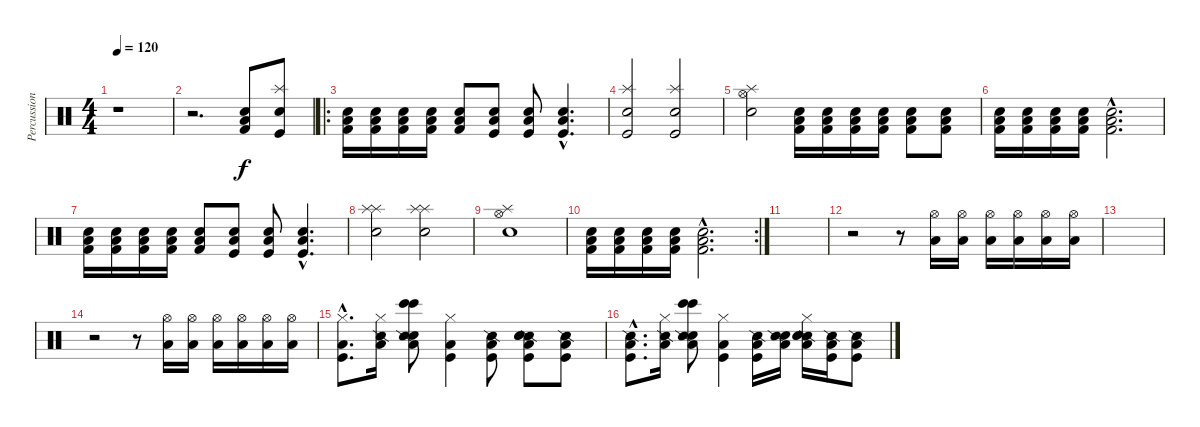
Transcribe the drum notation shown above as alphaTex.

\track ("Percussion" "Percussion") {instrument percussion}
\staff {score}
\articulation defaults
\ts (4 4)
\tempo 120
\clef neutral
\ks c
r.1{dy f} |
r.2{d} ("Low Floor Tom (hit)" "Kick (hit) 2" "Electric Snare (hit)").8 ("Splash (hit)" "Kick (hit)" "Electric Snare (hit)").8 |
\ro
("Low Floor Tom (hit)" "Kick (hit) 2" "Electric Snare (hit)").16 ("Low Floor Tom (hit)" "Kick (hit) 2" "Electric Snare (hit)").16 ("Low Floor Tom (hit)" "Kick (hit) 2" "Electric Snare (hit)").16 ("Low Floor Tom (hit)" "Kick (hit) 2" "Electric Snare (hit)").16 ("Low Floor Tom (hit)" "Kick (hit) 2" "Electric Snare (hit)").8 ("Low Floor Tom (hit)" "Kick (hit)" "Electric Snare (hit)").8 ("Low Floor Tom (hit)" "Kick (hit)" "Electric Snare (hit)").8 ("Low Floor Tom (hit)"{hac} "Kick (hit)"{hac} "Electric Snare (hit)"{hac}).4{d} |
("Splash (hit)" "Kick (hit)" "Electric Snare (hit)").2 ("Splash (hit)" "Kick (hit)" "Electric Snare (hit)").2 |
("Splash (hit)" "Hi-Hat (open)" "Electric Snare (hit)").2 ("Low Floor Tom (hit)" "Kick (hit) 2" "Electric Snare (hit)").16 ("Low Floor Tom (hit)" "Kick (hit) 2" "Electric Snare (hit)").16 ("Low Floor Tom (hit)" "Kick (hit) 2" "Electric Snare (hit)").16 ("Low Floor Tom (hit)" "Kick (hit) 2" "Electric Snare (hit)").16 ("Low Floor Tom (hit)" "Kick (hit) 2" "Electric Snare (hit)").8 ("Low Floor Tom (hit)" "Kick (hit) 2" "Electric Snare (hit)").8 |
("Low Floor Tom (hit)" "Kick (hit) 2" "Electric Snare (hit)").16 ("Low Floor Tom (hit)" "Kick (hit) 2" "Electric Snare (hit)").16 ("Low Floor Tom (hit)" "Kick (hit) 2" "Electric Snare (hit)").16 ("Low Floor Tom (hit)" "Kick (hit) 2" "Electric Snare (hit)").16 ("Low Floor Tom (hit)"{hac} "Kick (hit) 2"{hac} "Electric Snare (hit)"{hac}).2{d} |
("Low Floor Tom (hit)" "Kick (hit) 2" "Electric Snare (hit)").16 ("Low Floor Tom (hit)" "Kick (hit) 2" "Electric Snare (hit)").16 ("Low Floor Tom (hit)" "Kick (hit) 2" "Electric Snare (hit)").16 ("Low Floor Tom (hit)" "Kick (hit) 2" "Electric Snare (hit)").16 ("Low Floor Tom (hit)" "Kick (hit) 2" "Electric Snare (hit)").8 ("Low Floor Tom (hit)" "Kick (hit)" "Electric Snare (hit)").8 ("Low Floor Tom (hit)" "Kick (hit)" "Electric Snare (hit)").8 ("Low Floor Tom (hit)"{hac} "Kick (hit)"{hac} "Electric Snare (hit)"{hac}).4{d} |
("Splash (hit)" "Splash (hit)" "Electric Snare (hit)").2 ("Splash (hit)" "Splash (hit)" "Electric Snare (hit)").2 |
("Splash (hit)" "Hi-Hat (open)" "Electric Snare (hit)").1 |
\rc 2
("Low Floor Tom (hit)" "Kick (hit) 2" "Electric Snare (hit)").16 ("Low Floor Tom (hit)" "Kick (hit) 2" "Electric Snare (hit)").16 ("Low Floor Tom (hit)" "Kick (hit) 2" "Electric Snare (hit)").16 ("Low Floor Tom (hit)" "Kick (hit) 2" "Electric Snare (hit)").16 ("Low Floor Tom (hit)"{hac} "Kick (hit) 2"{hac} "Electric Snare (hit)"{hac}).2{d} |
|
r.2 r.8 ("Hi-Hat (open)" "Low Floor Tom (hit)").16 ("Hi-Hat (open)" "Low Floor Tom (hit)").16 ("Hi-Hat (open)" "Low Floor Tom (hit)").16 ("Hi-Hat (open)" "Low Floor Tom (hit)").16 ("Hi-Hat (open)" "Low Floor Tom (hit)").16 ("Hi-Hat (open)" "Low Floor Tom (hit)").16 |
|
r.2 r.8 ("Hi-Hat (open)" "Low Floor Tom (hit)").16 ("Hi-Hat (open)" "Low Floor Tom (hit)").16 ("Hi-Hat (open)" "Low Floor Tom (hit)").16 ("Hi-Hat (open)" "Low Floor Tom (hit)").16 ("Hi-Hat (open)" "Low Floor Tom (hit)").16 ("Hi-Hat (open)" "Low Floor Tom (hit)").16 |
("Kick (hit)"{hac} "Hi-Hat (closed)"{hac} "Low Floor Tom (hit)"{hac}).8{d} ("Hi-Hat (closed)" "Snare (side stick) 2" "Low Floor Tom (hit)").16 ("Snare (hit) 2" "Snare (side stick) 2" "Low Floor Tom (hit)" "Bongo High (hit)" "Bongo High (hit)").8 ("Kick (hit)" "Hi-Hat (closed)" "Low Floor Tom (hit)").4 ("Kick (hit)" "Snare (side stick) 2" "Low Floor Tom (hit)").8 ("Kick (hit)" "Snare (side stick) 2" "Low Floor Tom (hit)" "Electric Snare (hit)" "Electric Snare (hit)").8 ("Kick (hit)" "Snare (side stick) 2" "Low Floor Tom (hit)").8 |
("Kick (hit)"{hac} "Snare (side stick) 2"{hac} "Low Floor Tom (hit)"{hac}).8{d} ("Hi-Hat (closed)" "Snare (side stick) 2" "Low Floor Tom (hit)").16 ("Snare (hit) 2" "Snare (side stick) 2" "Low Floor Tom (hit)" "Bongo High (hit)" "Bongo High (hit)").8 ("Kick (hit)" "Hi-Hat (closed)" "Low Floor Tom (hit)").4 ("Kick (hit)" "Snare (side stick) 2" "Low Floor Tom (hit)").16 ("Snare (hit) 2" "Snare (side stick) 2" "Low Floor Tom (hit)").16 ("Hi-Hat (closed)" "Snare (side stick) 2" "Low Floor Tom (hit)" "Electric Snare (hit)" "Electric Snare (hit)").16 ("Kick (hit)" "Snare (side stick) 2" "Low Floor Tom (hit)").16 ("Kick (hit)" "Snare (side stick) 2" "Low Floor Tom (hit)").8
